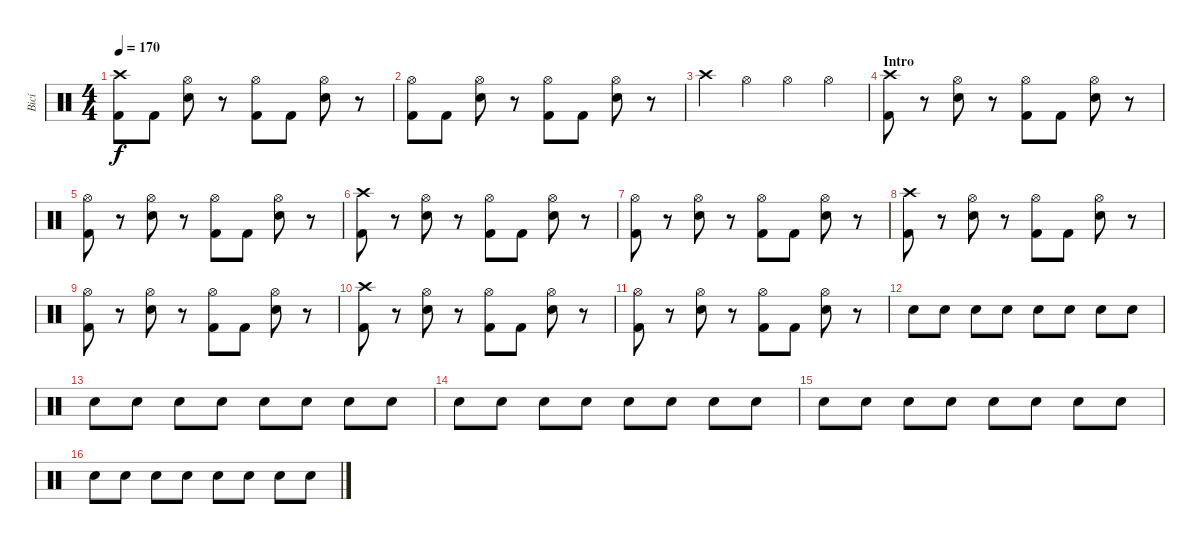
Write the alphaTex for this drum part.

\track ("Bicí" "Bicí") {instrument percussion}
\staff {score}
\articulation defaults
\ts (4 4)
\tempo 170
\clef neutral
\ks c
("Crash high (hit)" "Kick (hit) 2").8{dy f} "Kick (hit) 2".8 ("Hi-Hat (open)" "Snare (hit) 2").8 r.8 ("Hi-Hat (open)" "Kick (hit) 2").8 "Kick (hit) 2".8 ("Hi-Hat (open)" "Snare (hit) 2").8 r.8 |
("Hi-Hat (open)" "Kick (hit) 2").8 "Kick (hit) 2".8 ("Hi-Hat (open)" "Snare (hit) 2").8 r.8 ("Hi-Hat (open)" "Kick (hit) 2").8 "Kick (hit) 2".8 ("Hi-Hat (open)" "Snare (hit) 2").8 r.8 |
"Crash high (hit)".4 "Hi-Hat (open)".4 "Hi-Hat (open)".4 "Hi-Hat (open)".4 |
\section ("" "Intro")
("Crash high (hit)" "Kick (hit) 2").8 r.8 ("Hi-Hat (open)" "Snare (hit) 2").8 r.8 ("Hi-Hat (open)" "Kick (hit) 2").8 "Kick (hit) 2".8 ("Hi-Hat (open)" "Snare (hit) 2").8 r.8 |
("Hi-Hat (open)" "Kick (hit) 2").8 r.8 ("Hi-Hat (open)" "Snare (hit) 2").8 r.8 ("Hi-Hat (open)" "Kick (hit) 2").8 "Kick (hit) 2".8 ("Hi-Hat (open)" "Snare (hit) 2").8 r.8 |
("Crash high (hit)" "Kick (hit) 2").8 r.8 ("Hi-Hat (open)" "Snare (hit) 2").8 r.8 ("Hi-Hat (open)" "Kick (hit) 2").8 "Kick (hit) 2".8 ("Hi-Hat (open)" "Snare (hit) 2").8 r.8 |
("Hi-Hat (open)" "Kick (hit) 2").8 r.8 ("Hi-Hat (open)" "Snare (hit) 2").8 r.8 ("Hi-Hat (open)" "Kick (hit) 2").8 "Kick (hit) 2".8 ("Hi-Hat (open)" "Snare (hit) 2").8 r.8 |
("Crash high (hit)" "Kick (hit) 2").8 r.8 ("Hi-Hat (open)" "Snare (hit) 2").8 r.8 ("Hi-Hat (open)" "Kick (hit) 2").8 "Kick (hit) 2".8 ("Hi-Hat (open)" "Snare (hit) 2").8 r.8 |
("Hi-Hat (open)" "Kick (hit) 2").8 r.8 ("Hi-Hat (open)" "Snare (hit) 2").8 r.8 ("Hi-Hat (open)" "Kick (hit) 2").8 "Kick (hit) 2".8 ("Hi-Hat (open)" "Snare (hit) 2").8 r.8 |
("Crash high (hit)" "Kick (hit) 2").8 r.8 ("Hi-Hat (open)" "Snare (hit) 2").8 r.8 ("Hi-Hat (open)" "Kick (hit) 2").8 "Kick (hit) 2".8 ("Hi-Hat (open)" "Snare (hit) 2").8 r.8 |
("Hi-Hat (open)" "Kick (hit) 2").8 r.8 ("Hi-Hat (open)" "Snare (hit) 2").8 r.8 ("Hi-Hat (open)" "Kick (hit) 2").8 "Kick (hit) 2".8 ("Hi-Hat (open)" "Snare (hit) 2").8 r.8 |
"Snare (hit) 2".8 "Snare (hit) 2".8 "Snare (hit) 2".8 "Snare (hit) 2".8 "Snare (hit) 2".8 "Snare (hit) 2".8 "Snare (hit) 2".8 "Snare (hit) 2".8 |
"Snare (hit) 2".8 "Snare (hit) 2".8 "Snare (hit) 2".8 "Snare (hit) 2".8 "Snare (hit) 2".8 "Snare (hit) 2".8 "Snare (hit) 2".8 "Snare (hit) 2".8 |
"Snare (hit) 2".8 "Snare (hit) 2".8 "Snare (hit) 2".8 "Snare (hit) 2".8 "Snare (hit) 2".8 "Snare (hit) 2".8 "Snare (hit) 2".8 "Snare (hit) 2".8 |
"Snare (hit) 2".8 "Snare (hit) 2".8 "Snare (hit) 2".8 "Snare (hit) 2".8 "Snare (hit) 2".8 "Snare (hit) 2".8 "Snare (hit) 2".8 "Snare (hit) 2".8 |
"Snare (hit) 2".8 "Snare (hit) 2".8 "Snare (hit) 2".8 "Snare (hit) 2".8 "Snare (hit) 2".8 "Snare (hit) 2".8 "Snare (hit) 2".8 "Snare (hit) 2".8
